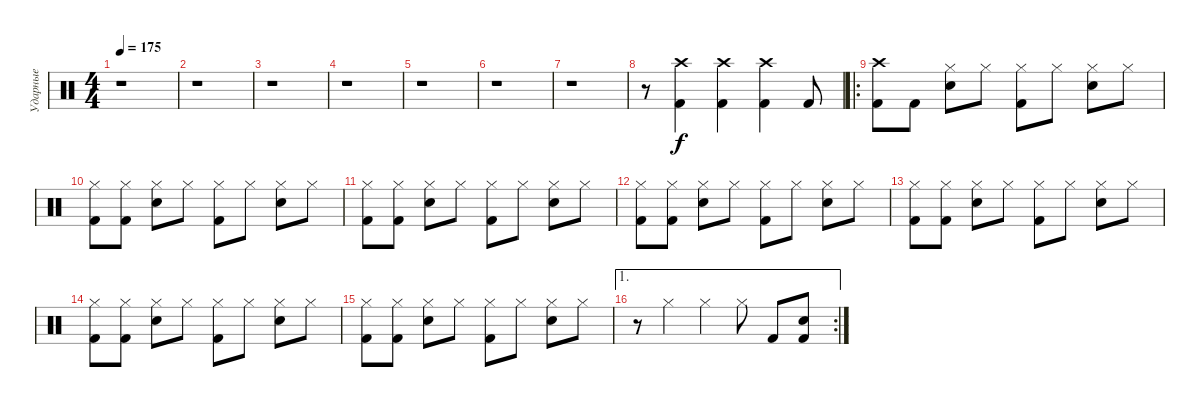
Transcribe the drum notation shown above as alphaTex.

\track ("Ударные" "Ударные") {instrument percussion}
\staff
\articulation defaults
\ts (4 4)
\tempo 175
\clef neutral
\ks c
r.1{dy f} |
r.1 |
r.1 |
r.1 |
r.1 |
r.1 |
r.1 |
r.8 ("Kick (hit) 2" "Crash high (hit)").4 ("Kick (hit) 2" "Crash high (hit)").4 ("Kick (hit) 2" "Crash high (hit)").4 "Kick (hit) 2".8 |
\ro
("Kick (hit) 2" "Crash high (hit)").8 "Kick (hit) 2".8 ("Snare (hit) 2" "Hi-Hat (closed)").8 "Hi-Hat (closed)".8 ("Kick (hit) 2" "Hi-Hat (closed)").8 "Hi-Hat (closed)".8 ("Snare (hit) 2" "Hi-Hat (closed)").8 "Hi-Hat (closed)".8 |
("Kick (hit) 2" "Hi-Hat (closed)").8 ("Kick (hit) 2" "Hi-Hat (closed)").8 ("Snare (hit) 2" "Hi-Hat (closed)").8 "Hi-Hat (closed)".8 ("Kick (hit) 2" "Hi-Hat (closed)").8 "Hi-Hat (closed)".8 ("Snare (hit) 2" "Hi-Hat (closed)").8 "Hi-Hat (closed)".8 |
("Kick (hit) 2" "Hi-Hat (closed)").8 ("Kick (hit) 2" "Hi-Hat (closed)").8 ("Snare (hit) 2" "Hi-Hat (closed)").8 "Hi-Hat (closed)".8 ("Kick (hit) 2" "Hi-Hat (closed)").8 "Hi-Hat (closed)".8 ("Snare (hit) 2" "Hi-Hat (closed)").8 "Hi-Hat (closed)".8 |
("Kick (hit) 2" "Hi-Hat (closed)").8 ("Kick (hit) 2" "Hi-Hat (closed)").8 ("Snare (hit) 2" "Hi-Hat (closed)").8 "Hi-Hat (closed)".8 ("Kick (hit) 2" "Hi-Hat (closed)").8 "Hi-Hat (closed)".8 ("Snare (hit) 2" "Hi-Hat (closed)").8 "Hi-Hat (closed)".8 |
("Kick (hit) 2" "Hi-Hat (closed)").8 ("Kick (hit) 2" "Hi-Hat (closed)").8 ("Snare (hit) 2" "Hi-Hat (closed)").8 "Hi-Hat (closed)".8 ("Kick (hit) 2" "Hi-Hat (closed)").8 "Hi-Hat (closed)".8 ("Snare (hit) 2" "Hi-Hat (closed)").8 "Hi-Hat (closed)".8 |
("Kick (hit) 2" "Hi-Hat (closed)").8 ("Kick (hit) 2" "Hi-Hat (closed)").8 ("Snare (hit) 2" "Hi-Hat (closed)").8 "Hi-Hat (closed)".8 ("Kick (hit) 2" "Hi-Hat (closed)").8 "Hi-Hat (closed)".8 ("Snare (hit) 2" "Hi-Hat (closed)").8 "Hi-Hat (closed)".8 |
("Kick (hit) 2" "Hi-Hat (closed)").8 ("Kick (hit) 2" "Hi-Hat (closed)").8 ("Snare (hit) 2" "Hi-Hat (closed)").8 "Hi-Hat (closed)".8 ("Kick (hit) 2" "Hi-Hat (closed)").8 "Hi-Hat (closed)".8 ("Snare (hit) 2" "Hi-Hat (closed)").8 "Hi-Hat (closed)".8 |
\ae 1
\rc 2
r.8 "Hi-Hat (closed)".4 "Hi-Hat (closed)".4 "Hi-Hat (closed)".8 "Kick (hit) 2".8 ("Kick (hit) 2" "Snare (hit) 2").8
